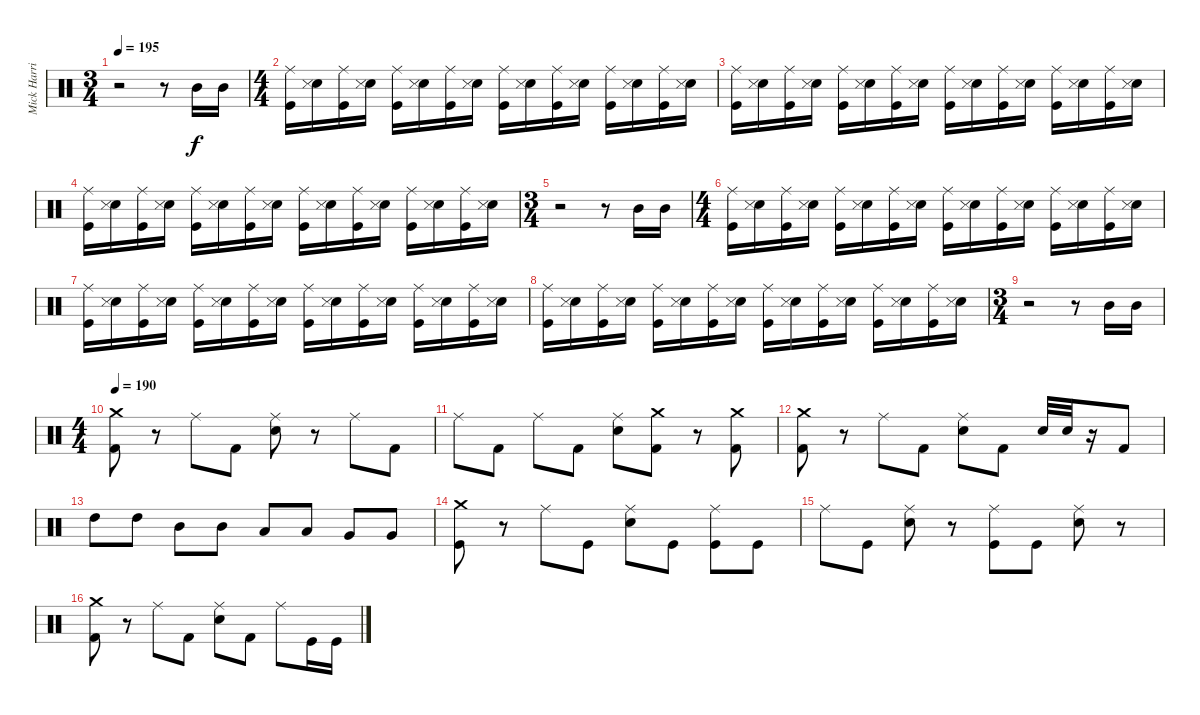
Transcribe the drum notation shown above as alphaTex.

\track ("Mick Harris (Drums)" "Mick Harri") {instrument percussion}
\staff {score}
\articulation defaults
\ts (3 4)
\tempo 195
\clef neutral
\ks c
r.2{dy f} r.8 "Mid Tom (hit)".16 "Mid Tom (hit)".16 |
\ts (4 4)
("Kick (hit)" "Ride (middle)").16 ("Electric Snare (hit)" "Snare (side stick) 3").16 ("Kick (hit)" "Ride (middle)").16 ("Electric Snare (hit)" "Snare (side stick) 3").16 ("Kick (hit)" "Ride (middle)").16 ("Electric Snare (hit)" "Snare (side stick) 3").16 ("Kick (hit)" "Ride (middle)").16 ("Electric Snare (hit)" "Snare (side stick) 3").16 ("Kick (hit)" "Ride (middle)").16 ("Electric Snare (hit)" "Snare (side stick) 3").16 ("Kick (hit)" "Ride (middle)").16 ("Electric Snare (hit)" "Snare (side stick) 3").16 ("Kick (hit)" "Ride (middle)").16 ("Electric Snare (hit)" "Snare (side stick) 3").16 ("Kick (hit)" "Ride (middle)").16 ("Electric Snare (hit)" "Snare (side stick) 3").16 |
("Kick (hit)" "Ride (middle)").16 ("Electric Snare (hit)" "Snare (side stick) 3").16 ("Kick (hit)" "Ride (middle)").16 ("Electric Snare (hit)" "Snare (side stick) 3").16 ("Kick (hit)" "Ride (middle)").16 ("Electric Snare (hit)" "Snare (side stick) 3").16 ("Kick (hit)" "Ride (middle)").16 ("Electric Snare (hit)" "Snare (side stick) 3").16 ("Kick (hit)" "Ride (middle)").16 ("Electric Snare (hit)" "Snare (side stick) 3").16 ("Kick (hit)" "Ride (middle)").16 ("Electric Snare (hit)" "Snare (side stick) 3").16 ("Kick (hit)" "Ride (middle)").16 ("Electric Snare (hit)" "Snare (side stick) 3").16 ("Kick (hit)" "Ride (middle)").16 ("Electric Snare (hit)" "Snare (side stick) 3").16 |
("Kick (hit)" "Ride (middle)").16 ("Electric Snare (hit)" "Snare (side stick) 3").16 ("Kick (hit)" "Ride (middle)").16 ("Electric Snare (hit)" "Snare (side stick) 3").16 ("Kick (hit)" "Ride (middle)").16 ("Electric Snare (hit)" "Snare (side stick) 3").16 ("Kick (hit)" "Ride (middle)").16 ("Electric Snare (hit)" "Snare (side stick) 3").16 ("Kick (hit)" "Ride (middle)").16 ("Electric Snare (hit)" "Snare (side stick) 3").16 ("Kick (hit)" "Ride (middle)").16 ("Electric Snare (hit)" "Snare (side stick) 3").16 ("Kick (hit)" "Ride (middle)").16 ("Electric Snare (hit)" "Snare (side stick) 3").16 ("Kick (hit)" "Ride (middle)").16 ("Electric Snare (hit)" "Snare (side stick) 3").16 |
\ts (3 4)
r.2 r.8 "Mid Tom (hit)".16 "Mid Tom (hit)".16 |
\ts (4 4)
("Kick (hit)" "Ride (middle)").16 ("Electric Snare (hit)" "Snare (side stick) 3").16 ("Kick (hit)" "Ride (middle)").16 ("Electric Snare (hit)" "Snare (side stick) 3").16 ("Kick (hit)" "Ride (middle)").16 ("Electric Snare (hit)" "Snare (side stick) 3").16 ("Kick (hit)" "Ride (middle)").16 ("Electric Snare (hit)" "Snare (side stick) 3").16 ("Kick (hit)" "Ride (middle)").16 ("Electric Snare (hit)" "Snare (side stick) 3").16 ("Kick (hit)" "Ride (middle)").16 ("Electric Snare (hit)" "Snare (side stick) 3").16 ("Kick (hit)" "Ride (middle)").16 ("Electric Snare (hit)" "Snare (side stick) 3").16 ("Kick (hit)" "Ride (middle)").16 ("Electric Snare (hit)" "Snare (side stick) 3").16 |
("Kick (hit)" "Ride (middle)").16 ("Electric Snare (hit)" "Snare (side stick) 3").16 ("Kick (hit)" "Ride (middle)").16 ("Electric Snare (hit)" "Snare (side stick) 3").16 ("Kick (hit)" "Ride (middle)").16 ("Electric Snare (hit)" "Snare (side stick) 3").16 ("Kick (hit)" "Ride (middle)").16 ("Electric Snare (hit)" "Snare (side stick) 3").16 ("Kick (hit)" "Ride (middle)").16 ("Electric Snare (hit)" "Snare (side stick) 3").16 ("Kick (hit)" "Ride (middle)").16 ("Electric Snare (hit)" "Snare (side stick) 3").16 ("Kick (hit)" "Ride (middle)").16 ("Electric Snare (hit)" "Snare (side stick) 3").16 ("Kick (hit)" "Ride (middle)").16 ("Electric Snare (hit)" "Snare (side stick) 3").16 |
("Kick (hit)" "Ride (middle)").16 ("Electric Snare (hit)" "Snare (side stick) 3").16 ("Kick (hit)" "Ride (middle)").16 ("Electric Snare (hit)" "Snare (side stick) 3").16 ("Kick (hit)" "Ride (middle)").16 ("Electric Snare (hit)" "Snare (side stick) 3").16 ("Kick (hit)" "Ride (middle)").16 ("Electric Snare (hit)" "Snare (side stick) 3").16 ("Kick (hit)" "Ride (middle)").16 ("Electric Snare (hit)" "Snare (side stick) 3").16 ("Kick (hit)" "Ride (middle)").16 ("Electric Snare (hit)" "Snare (side stick) 3").16 ("Kick (hit)" "Ride (middle)").16 ("Electric Snare (hit)" "Snare (side stick) 3").16 ("Kick (hit)" "Ride (middle)").16 ("Electric Snare (hit)" "Snare (side stick) 3").16 |
\ts (3 4)
r.2 r.8 "Mid Tom (hit)".16 "Mid Tom (hit)".16 |
\ts (4 4)
\tempo 190
("Kick (hit) 2" "Crash medium (hit)").8 r.8 "Ride (middle)".8 "Kick (hit) 2".8 ("Electric Snare (hit)" "Ride (middle)").8 r.8 "Ride (middle)".8 "Kick (hit) 2".8 |
"Ride (middle)".8 "Kick (hit) 2".8 "Ride (middle)".8 "Kick (hit) 2".8 ("Electric Snare (hit)" "Ride (middle)").8 ("Kick (hit) 2" "Crash medium (hit)").8 r.8 ("Kick (hit) 2" "Crash medium (hit)").8 |
("Kick (hit) 2" "Crash medium (hit)").8 r.8 "Ride (middle)".8 "Kick (hit) 2".8 ("Electric Snare (hit)" "Ride (middle)").8 "Kick (hit) 2".8 "Electric Snare (hit)".32 "Electric Snare (hit)".32 r.16 "Kick (hit) 2".8 |
"High Tom (hit)".8 "High Tom (hit)".8 "Mid Tom (hit)".8 "Mid Tom (hit)".8 "Low Tom (hit)".8 "Low Tom (hit)".8 "Very Low Tom (hit)".8 "Very Low Tom (hit)".8 |
("Kick (hit)" "Crash medium (hit)").8 r.8 "Ride (middle)".8 "Kick (hit)".8 ("Electric Snare (hit)" "Ride (middle)").8 "Kick (hit)".8 ("Kick (hit)" "Ride (middle)").8 "Kick (hit)".8 |
"Ride (middle)".8 "Kick (hit)".8 ("Electric Snare (hit)" "Ride (middle)").8 r.8 ("Kick (hit)" "Ride (middle)").8 "Kick (hit)".8 ("Electric Snare (hit)" "Ride (middle)").8 r.8 |
("Kick (hit) 2" "Crash medium (hit)").8 r.8 "Ride (middle)".8 "Kick (hit) 2".8 ("Electric Snare (hit)" "Ride (middle)").8 "Kick (hit) 2".8 "Ride (middle)".8 "Kick (hit)".16 "Kick (hit)".16
